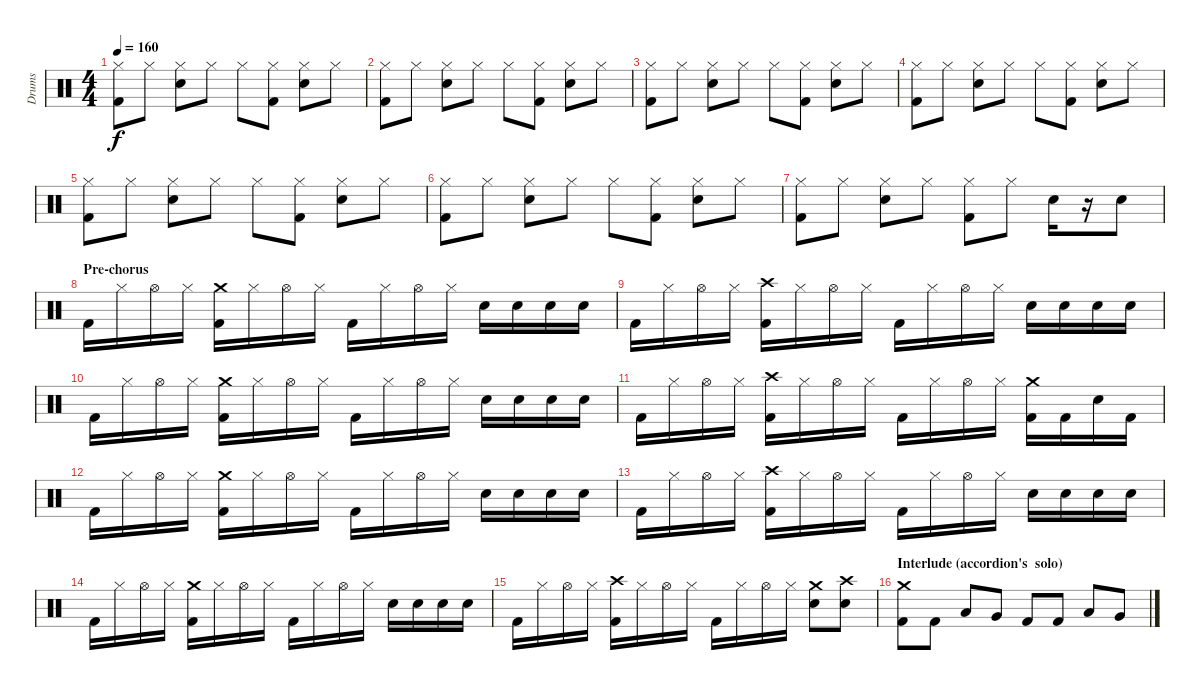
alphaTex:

\track ("Drums" "Drums") {instrument percussion}
\staff {score}
\articulation defaults
\ts (4 4)
\tempo 160
\clef neutral
\ks c
("Hi-Hat (closed)" "Kick (hit) 2").8{dy f} "Hi-Hat (closed)".8 ("Hi-Hat (closed)" "Snare (hit) 2").8 "Hi-Hat (closed)".8 "Hi-Hat (closed)".8 ("Hi-Hat (closed)" "Kick (hit) 2").8 ("Hi-Hat (closed)" "Snare (hit) 2").8 "Hi-Hat (closed)".8 |
("Hi-Hat (closed)" "Kick (hit) 2").8 "Hi-Hat (closed)".8 ("Hi-Hat (closed)" "Snare (hit) 2").8 "Hi-Hat (closed)".8 "Hi-Hat (closed)".8 ("Hi-Hat (closed)" "Kick (hit) 2").8 ("Hi-Hat (closed)" "Snare (hit) 2").8 "Hi-Hat (closed)".8 |
("Hi-Hat (closed)" "Kick (hit) 2").8 "Hi-Hat (closed)".8 ("Hi-Hat (closed)" "Snare (hit) 2").8 "Hi-Hat (closed)".8 "Hi-Hat (closed)".8 ("Hi-Hat (closed)" "Kick (hit) 2").8 ("Hi-Hat (closed)" "Snare (hit) 2").8 "Hi-Hat (closed)".8 |
("Hi-Hat (closed)" "Kick (hit) 2").8 "Hi-Hat (closed)".8 ("Hi-Hat (closed)" "Snare (hit) 2").8 "Hi-Hat (closed)".8 "Hi-Hat (closed)".8 ("Hi-Hat (closed)" "Kick (hit) 2").8 ("Hi-Hat (closed)" "Snare (hit) 2").8 "Hi-Hat (closed)".8 |
("Hi-Hat (closed)" "Kick (hit) 2").8 "Hi-Hat (closed)".8 ("Hi-Hat (closed)" "Snare (hit) 2").8 "Hi-Hat (closed)".8 "Hi-Hat (closed)".8 ("Hi-Hat (closed)" "Kick (hit) 2").8 ("Hi-Hat (closed)" "Snare (hit) 2").8 "Hi-Hat (closed)".8 |
("Hi-Hat (closed)" "Kick (hit) 2").8 "Hi-Hat (closed)".8 ("Hi-Hat (closed)" "Snare (hit) 2").8 "Hi-Hat (closed)".8 "Hi-Hat (closed)".8 ("Hi-Hat (closed)" "Kick (hit) 2").8 ("Hi-Hat (closed)" "Snare (hit) 2").8 "Hi-Hat (closed)".8 |
("Hi-Hat (closed)" "Kick (hit) 2").8 "Hi-Hat (closed)".8 ("Hi-Hat (closed)" "Snare (hit) 2").8 "Hi-Hat (closed)".8 ("Hi-Hat (closed)" "Kick (hit) 2").8 "Hi-Hat (closed)".8 "Snare (hit) 2".16 r.16 "Snare (hit) 2".8 |
\section ("" "Pre-chorus")
"Kick (hit) 2".16 "Hi-Hat (closed)".16 "Hi-Hat (open)".16 "Hi-Hat (closed)".16 ("Crash medium (hit)" "Kick (hit) 2").16 "Hi-Hat (closed)".16 "Hi-Hat (open)".16 "Hi-Hat (closed)".16 "Kick (hit) 2".16 "Hi-Hat (closed)".16 "Hi-Hat (open)".16 "Hi-Hat (closed)".16 "Snare (hit) 2".16 "Snare (hit) 2".16 "Snare (hit) 2".16 "Snare (hit) 2".16 |
"Kick (hit) 2".16 "Hi-Hat (closed)".16 "Hi-Hat (open)".16 "Hi-Hat (closed)".16 ("Crash high (hit)" "Kick (hit) 2").16 "Hi-Hat (closed)".16 "Hi-Hat (open)".16 "Hi-Hat (closed)".16 "Kick (hit) 2".16 "Hi-Hat (closed)".16 "Hi-Hat (open)".16 "Hi-Hat (closed)".16 "Snare (hit) 2".16 "Snare (hit) 2".16 "Snare (hit) 2".16 "Snare (hit) 2".16 |
"Kick (hit) 2".16 "Hi-Hat (closed)".16 "Hi-Hat (open)".16 "Hi-Hat (closed)".16 ("Crash medium (hit)" "Kick (hit) 2").16 "Hi-Hat (closed)".16 "Hi-Hat (open)".16 "Hi-Hat (closed)".16 "Kick (hit) 2".16 "Hi-Hat (closed)".16 "Hi-Hat (open)".16 "Hi-Hat (closed)".16 "Snare (hit) 2".16 "Snare (hit) 2".16 "Snare (hit) 2".16 "Snare (hit) 2".16 |
"Kick (hit) 2".16 "Hi-Hat (closed)".16 "Hi-Hat (open)".16 "Hi-Hat (closed)".16 ("Crash high (hit)" "Kick (hit) 2").16 "Hi-Hat (closed)".16 "Hi-Hat (open)".16 "Hi-Hat (closed)".16 "Kick (hit) 2".16 "Hi-Hat (closed)".16 "Hi-Hat (open)".16 "Hi-Hat (closed)".16 ("Crash medium (hit)" "Kick (hit) 2").16 "Kick (hit) 2".16 "Snare (hit) 2".16 "Kick (hit) 2".16 |
"Kick (hit) 2".16 "Hi-Hat (closed)".16 "Hi-Hat (open)".16 "Hi-Hat (closed)".16 ("Crash medium (hit)" "Kick (hit) 2").16 "Hi-Hat (closed)".16 "Hi-Hat (open)".16 "Hi-Hat (closed)".16 "Kick (hit) 2".16 "Hi-Hat (closed)".16 "Hi-Hat (open)".16 "Hi-Hat (closed)".16 "Snare (hit) 2".16 "Snare (hit) 2".16 "Snare (hit) 2".16 "Snare (hit) 2".16 |
"Kick (hit) 2".16 "Hi-Hat (closed)".16 "Hi-Hat (open)".16 "Hi-Hat (closed)".16 ("Crash high (hit)" "Kick (hit) 2").16 "Hi-Hat (closed)".16 "Hi-Hat (open)".16 "Hi-Hat (closed)".16 "Kick (hit) 2".16 "Hi-Hat (closed)".16 "Hi-Hat (open)".16 "Hi-Hat (closed)".16 "Snare (hit) 2".16 "Snare (hit) 2".16 "Snare (hit) 2".16 "Snare (hit) 2".16 |
"Kick (hit) 2".16 "Hi-Hat (closed)".16 "Hi-Hat (open)".16 "Hi-Hat (closed)".16 ("Crash medium (hit)" "Kick (hit) 2").16 "Hi-Hat (closed)".16 "Hi-Hat (open)".16 "Hi-Hat (closed)".16 "Kick (hit) 2".16 "Hi-Hat (closed)".16 "Hi-Hat (open)".16 "Hi-Hat (closed)".16 "Snare (hit) 2".16 "Snare (hit) 2".16 "Snare (hit) 2".16 "Snare (hit) 2".16 |
"Kick (hit) 2".16 "Hi-Hat (closed)".16 "Hi-Hat (open)".16 "Hi-Hat (closed)".16 ("Crash high (hit)" "Kick (hit) 2").16 "Hi-Hat (closed)".16 "Hi-Hat (open)".16 "Hi-Hat (closed)".16 "Kick (hit) 2".16 "Hi-Hat (closed)".16 "Hi-Hat (open)".16 "Hi-Hat (closed)".16 ("Crash medium (hit)" "Snare (hit) 2").8 ("Crash high (hit)" "Snare (hit) 2").8 |
\section ("" "Interlude (accordion's  solo)")
("Crash medium (hit)" "Kick (hit) 2").8 "Kick (hit) 2".8 "Low Tom (hit)".8 "Very Low Tom (hit)".8 "Kick (hit) 2".8 "Kick (hit) 2".8 "Low Tom (hit)".8 "Very Low Tom (hit)".8
